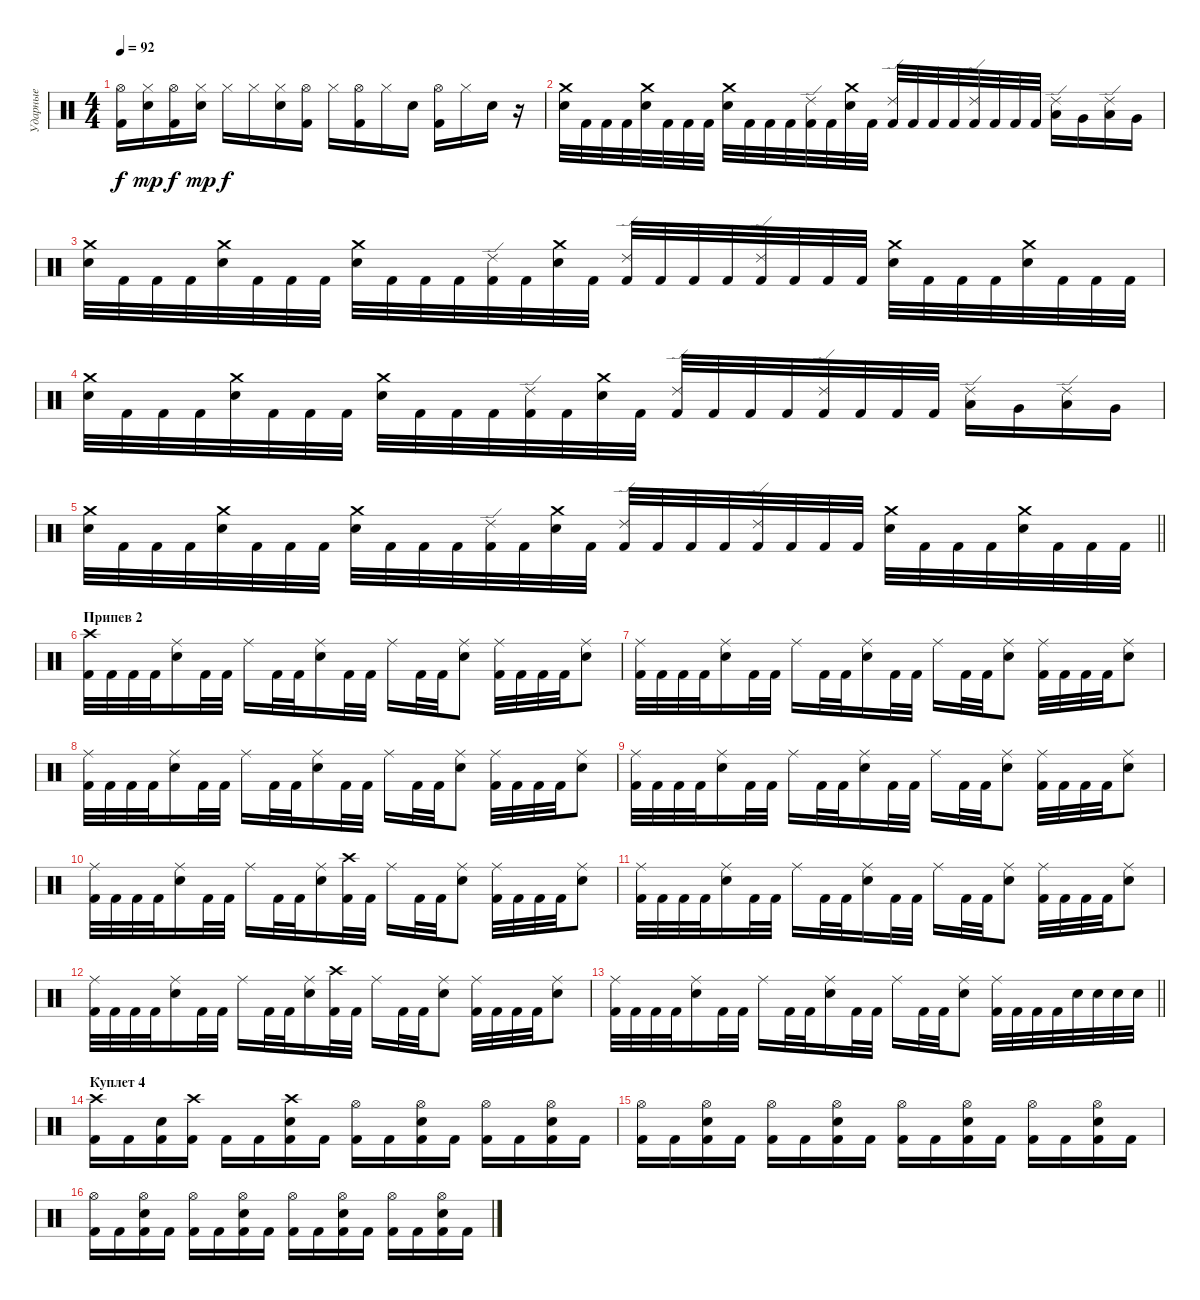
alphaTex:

\track ("Ударные" "Ударные") {instrument percussion}
\staff {score}
\articulation defaults
\ts (4 4)
\tempo 92
\clef neutral
\ks c
("Kick (hit) 2" "Hi-Hat (open)").16{dy f} ("Snare (hit) 2" "Hi-Hat (closed)").16{dy mp} ("Hi-Hat (open)" "Kick (hit) 2").16{dy f} ("Snare (hit) 2" "Hi-Hat (closed)").16{dy mp} "Hi-Hat (closed)".16{dy f} "Hi-Hat (closed)".16 ("Electric Snare (hit)" "Hi-Hat (closed)").16 ("Kick (hit) 2" "Hi-Hat (open)").16 "Hi-Hat (closed)".16 ("Kick (hit) 2" "Hi-Hat (open)").16 "Hi-Hat (closed)".16 "Electric Snare (hit)".16 ("Kick (hit) 2" "Hi-Hat (open)").16 "Hi-Hat (closed)".16 "Electric Snare (hit)".16 r.16 |
("Electric Snare (hit)" "Crash medium (hit)").32 "Kick (hit) 2".32 "Kick (hit) 2".32 "Kick (hit) 2".32 ("Electric Snare (hit)" "Crash medium (hit)").32 "Kick (hit) 2".32 "Kick (hit) 2".32 "Kick (hit) 2".32 ("Electric Snare (hit)" "Crash medium (hit)").32 "Kick (hit) 2".32 "Kick (hit) 2".32 "Kick (hit) 2".32 ("Ride (edge) 2" "Kick (hit) 2").32 "Kick (hit) 2".32 ("Crash medium (hit)" "Electric Snare (hit)").32 "Kick (hit) 2".32 ("Ride (edge) 2" "Kick (hit) 2").32 "Kick (hit) 2".32 "Kick (hit) 2".32 "Kick (hit) 2".32 ("Ride (edge) 2" "Kick (hit) 2").32 "Kick (hit) 2".32 "Kick (hit) 2".32 "Kick (hit) 2".32 ("Ride (edge) 2" "Low Floor Tom (hit)").16 "Very Low Tom (hit)".16 ("Ride (edge) 2" "Low Tom (hit)").16 "Very Low Tom (hit)".16 |
("Electric Snare (hit)" "Crash medium (hit)").32 "Kick (hit) 2".32 "Kick (hit) 2".32 "Kick (hit) 2".32 ("Electric Snare (hit)" "Crash medium (hit)").32 "Kick (hit) 2".32 "Kick (hit) 2".32 "Kick (hit) 2".32 ("Electric Snare (hit)" "Crash medium (hit)").32 "Kick (hit) 2".32 "Kick (hit) 2".32 "Kick (hit) 2".32 ("Ride (edge) 2" "Kick (hit) 2").32 "Kick (hit) 2".32 ("Crash medium (hit)" "Electric Snare (hit)").32 "Kick (hit) 2".32 ("Ride (edge) 2" "Kick (hit) 2").32 "Kick (hit) 2".32 "Kick (hit) 2".32 "Kick (hit) 2".32 ("Ride (edge) 2" "Kick (hit) 2").32 "Kick (hit) 2".32 "Kick (hit) 2".32 "Kick (hit) 2".32 ("Electric Snare (hit)" "Crash medium (hit)").32 "Kick (hit) 2".32 "Kick (hit) 2".32 "Kick (hit) 2".32 ("Electric Snare (hit)" "Crash medium (hit)").32 "Kick (hit) 2".32 "Kick (hit) 2".32 "Kick (hit) 2".32 |
("Electric Snare (hit)" "Crash medium (hit)").32 "Kick (hit) 2".32 "Kick (hit) 2".32 "Kick (hit) 2".32 ("Electric Snare (hit)" "Crash medium (hit)").32 "Kick (hit) 2".32 "Kick (hit) 2".32 "Kick (hit) 2".32 ("Electric Snare (hit)" "Crash medium (hit)").32 "Kick (hit) 2".32 "Kick (hit) 2".32 "Kick (hit) 2".32 ("Ride (edge) 2" "Kick (hit) 2").32 "Kick (hit) 2".32 ("Crash medium (hit)" "Electric Snare (hit)").32 "Kick (hit) 2".32 ("Ride (edge) 2" "Kick (hit) 2").32 "Kick (hit) 2".32 "Kick (hit) 2".32 "Kick (hit) 2".32 ("Ride (edge) 2" "Kick (hit) 2").32 "Kick (hit) 2".32 "Kick (hit) 2".32 "Kick (hit) 2".32 ("Ride (edge) 2" "Low Floor Tom (hit)").16 "Very Low Tom (hit)".16 ("Ride (edge) 2" "Low Tom (hit)").16 "Very Low Tom (hit)".16 |
\barLineRight lightlight
("Electric Snare (hit)" "Crash medium (hit)").32 "Kick (hit) 2".32 "Kick (hit) 2".32 "Kick (hit) 2".32 ("Electric Snare (hit)" "Crash medium (hit)").32 "Kick (hit) 2".32 "Kick (hit) 2".32 "Kick (hit) 2".32 ("Electric Snare (hit)" "Crash medium (hit)").32 "Kick (hit) 2".32 "Kick (hit) 2".32 "Kick (hit) 2".32 ("Ride (edge) 2" "Kick (hit) 2").32 "Kick (hit) 2".32 ("Crash medium (hit)" "Electric Snare (hit)").32 "Kick (hit) 2".32 ("Ride (edge) 2" "Kick (hit) 2").32 "Kick (hit) 2".32 "Kick (hit) 2".32 "Kick (hit) 2".32 ("Ride (edge) 2" "Kick (hit) 2").32 "Kick (hit) 2".32 "Kick (hit) 2".32 "Kick (hit) 2".32 ("Electric Snare (hit)" "Crash medium (hit)").32 "Kick (hit) 2".32 "Kick (hit) 2".32 "Kick (hit) 2".32 ("Electric Snare (hit)" "Crash medium (hit)").32 "Kick (hit) 2".32 "Kick (hit) 2".32 "Kick (hit) 2".32 |
\section ("" "Припев 2")
("Crash high (hit)" "Kick (hit) 2").32 "Kick (hit) 2".32 "Kick (hit) 2".32 "Kick (hit) 2".32 ("Ride (middle)" "Electric Snare (hit)").16 "Kick (hit) 2".32 "Kick (hit) 2".32 "Ride (middle)".16 "Kick (hit) 2".32 "Kick (hit) 2".32 ("Electric Snare (hit)" "Ride (middle)").16 "Kick (hit) 2".32 "Kick (hit) 2".32 "Ride (middle)".16 "Kick (hit) 2".32 "Kick (hit) 2".32 ("Electric Snare (hit)" "Ride (middle)").8 ("Kick (hit) 2" "Ride (middle)").32 "Kick (hit) 2".32 "Kick (hit) 2".32 "Kick (hit) 2".32 ("Electric Snare (hit)" "Ride (middle)").8 |
("Ride (middle)" "Kick (hit) 2").32 "Kick (hit) 2".32 "Kick (hit) 2".32 "Kick (hit) 2".32 ("Ride (middle)" "Electric Snare (hit)").16 "Kick (hit) 2".32 "Kick (hit) 2".32 "Ride (middle)".16 "Kick (hit) 2".32 "Kick (hit) 2".32 ("Electric Snare (hit)" "Ride (middle)").16 "Kick (hit) 2".32 "Kick (hit) 2".32 "Ride (middle)".16 "Kick (hit) 2".32 "Kick (hit) 2".32 ("Electric Snare (hit)" "Ride (middle)").8 ("Kick (hit) 2" "Ride (middle)").32 "Kick (hit) 2".32 "Kick (hit) 2".32 "Kick (hit) 2".32 ("Electric Snare (hit)" "Ride (middle)").8 |
("Ride (middle)" "Kick (hit) 2").32 "Kick (hit) 2".32 "Kick (hit) 2".32 "Kick (hit) 2".32 ("Ride (middle)" "Electric Snare (hit)").16 "Kick (hit) 2".32 "Kick (hit) 2".32 "Ride (middle)".16 "Kick (hit) 2".32 "Kick (hit) 2".32 ("Electric Snare (hit)" "Ride (middle)").16 "Kick (hit) 2".32 "Kick (hit) 2".32 "Ride (middle)".16 "Kick (hit) 2".32 "Kick (hit) 2".32 ("Electric Snare (hit)" "Ride (middle)").8 ("Kick (hit) 2" "Ride (middle)").32 "Kick (hit) 2".32 "Kick (hit) 2".32 "Kick (hit) 2".32 ("Electric Snare (hit)" "Ride (middle)").8 |
("Ride (middle)" "Kick (hit) 2").32 "Kick (hit) 2".32 "Kick (hit) 2".32 "Kick (hit) 2".32 ("Ride (middle)" "Electric Snare (hit)").16 "Kick (hit) 2".32 "Kick (hit) 2".32 "Ride (middle)".16 "Kick (hit) 2".32 "Kick (hit) 2".32 ("Electric Snare (hit)" "Ride (middle)").16 "Kick (hit) 2".32 "Kick (hit) 2".32 "Ride (middle)".16 "Kick (hit) 2".32 "Kick (hit) 2".32 ("Electric Snare (hit)" "Ride (middle)").8 ("Kick (hit) 2" "Ride (middle)").32 "Kick (hit) 2".32 "Kick (hit) 2".32 "Kick (hit) 2".32 ("Electric Snare (hit)" "Ride (middle)").8 |
("Ride (middle)" "Kick (hit) 2").32 "Kick (hit) 2".32 "Kick (hit) 2".32 "Kick (hit) 2".32 ("Ride (middle)" "Electric Snare (hit)").16 "Kick (hit) 2".32 "Kick (hit) 2".32 "Ride (middle)".16 "Kick (hit) 2".32 "Kick (hit) 2".32 ("Electric Snare (hit)" "Ride (middle)").16 ("Crash high (hit)" "Kick (hit) 2").32 "Kick (hit) 2".32 "Ride (middle)".16 "Kick (hit) 2".32 "Kick (hit) 2".32 ("Electric Snare (hit)" "Ride (middle)").8 ("Kick (hit) 2" "Ride (middle)").32 "Kick (hit) 2".32 "Kick (hit) 2".32 "Kick (hit) 2".32 ("Electric Snare (hit)" "Ride (middle)").8 |
("Ride (middle)" "Kick (hit) 2").32 "Kick (hit) 2".32 "Kick (hit) 2".32 "Kick (hit) 2".32 ("Ride (middle)" "Electric Snare (hit)").16 "Kick (hit) 2".32 "Kick (hit) 2".32 "Ride (middle)".16 "Kick (hit) 2".32 "Kick (hit) 2".32 ("Electric Snare (hit)" "Ride (middle)").16 "Kick (hit) 2".32 "Kick (hit) 2".32 "Ride (middle)".16 "Kick (hit) 2".32 "Kick (hit) 2".32 ("Electric Snare (hit)" "Ride (middle)").8 ("Kick (hit) 2" "Ride (middle)").32 "Kick (hit) 2".32 "Kick (hit) 2".32 "Kick (hit) 2".32 ("Electric Snare (hit)" "Ride (middle)").8 |
("Ride (middle)" "Kick (hit) 2").32 "Kick (hit) 2".32 "Kick (hit) 2".32 "Kick (hit) 2".32 ("Ride (middle)" "Electric Snare (hit)").16 "Kick (hit) 2".32 "Kick (hit) 2".32 "Ride (middle)".16 "Kick (hit) 2".32 "Kick (hit) 2".32 ("Electric Snare (hit)" "Ride (middle)").16 ("Crash high (hit)" "Kick (hit) 2").32 "Kick (hit) 2".32 "Ride (middle)".16 "Kick (hit) 2".32 "Kick (hit) 2".32 ("Electric Snare (hit)" "Ride (middle)").8 ("Kick (hit) 2" "Ride (middle)").32 "Kick (hit) 2".32 "Kick (hit) 2".32 "Kick (hit) 2".32 ("Electric Snare (hit)" "Ride (middle)").8 |
\barLineRight lightlight
("Ride (middle)" "Kick (hit) 2").32 "Kick (hit) 2".32 "Kick (hit) 2".32 "Kick (hit) 2".32 ("Ride (middle)" "Electric Snare (hit)").16 "Kick (hit) 2".32 "Kick (hit) 2".32 "Ride (middle)".16 "Kick (hit) 2".32 "Kick (hit) 2".32 ("Electric Snare (hit)" "Ride (middle)").16 "Kick (hit) 2".32 "Kick (hit) 2".32 "Ride (middle)".16 "Kick (hit) 2".32 "Kick (hit) 2".32 ("Electric Snare (hit)" "Ride (middle)").8 ("Kick (hit) 2" "Ride (middle)").32 "Kick (hit) 2".32 "Kick (hit) 2".32 "Kick (hit) 2".32 "Electric Snare (hit)".32 "Electric Snare (hit)".32 "Electric Snare (hit)".32 "Electric Snare (hit)".32 |
\section ("" "Куплет 4 ")
("Crash high (hit)" "Kick (hit) 2").16 "Kick (hit) 2".16 ("Electric Snare (hit)" "Kick (hit) 2").16 ("Crash high (hit)" "Kick (hit) 2").16 "Kick (hit) 2".16 "Kick (hit) 2".16 ("Electric Snare (hit)" "Crash high (hit)" "Kick (hit) 2").16 "Kick (hit) 2".16 ("Hi-Hat (open)" "Kick (hit) 2").16 "Kick (hit) 2".16 ("Electric Snare (hit)" "Hi-Hat (open)" "Kick (hit) 2").16 "Kick (hit) 2".16 ("Hi-Hat (open)" "Kick (hit) 2").16 "Kick (hit) 2".16 ("Electric Snare (hit)" "Hi-Hat (open)" "Kick (hit) 2").16 "Kick (hit) 2".16 |
("Hi-Hat (open)" "Kick (hit) 2").16 "Kick (hit) 2".16 ("Electric Snare (hit)" "Hi-Hat (open)" "Kick (hit) 2").16 "Kick (hit) 2".16 ("Hi-Hat (open)" "Kick (hit) 2").16 "Kick (hit) 2".16 ("Electric Snare (hit)" "Hi-Hat (open)" "Kick (hit) 2").16 "Kick (hit) 2".16 ("Hi-Hat (open)" "Kick (hit) 2").16 "Kick (hit) 2".16 ("Electric Snare (hit)" "Hi-Hat (open)" "Kick (hit) 2").16 "Kick (hit) 2".16 ("Hi-Hat (open)" "Kick (hit) 2").16 "Kick (hit) 2".16 ("Electric Snare (hit)" "Hi-Hat (open)" "Kick (hit) 2").16 "Kick (hit) 2".16 |
("Hi-Hat (open)" "Kick (hit) 2").16 "Kick (hit) 2".16 ("Electric Snare (hit)" "Hi-Hat (open)" "Kick (hit) 2").16 "Kick (hit) 2".16 ("Hi-Hat (open)" "Kick (hit) 2").16 "Kick (hit) 2".16 ("Electric Snare (hit)" "Hi-Hat (open)" "Kick (hit) 2").16 "Kick (hit) 2".16 ("Hi-Hat (open)" "Kick (hit) 2").16 "Kick (hit) 2".16 ("Electric Snare (hit)" "Hi-Hat (open)" "Kick (hit) 2").16 "Kick (hit) 2".16 ("Hi-Hat (open)" "Kick (hit) 2").16 "Kick (hit) 2".16 ("Electric Snare (hit)" "Hi-Hat (open)" "Kick (hit) 2").16 "Kick (hit) 2".16
